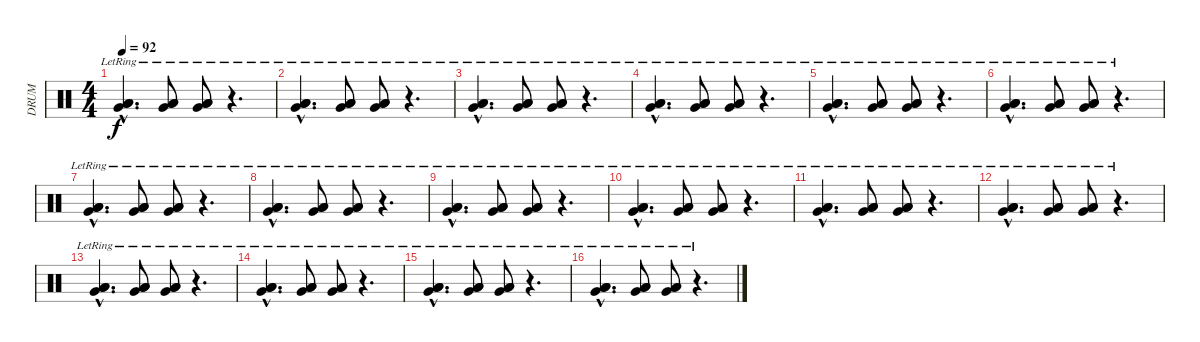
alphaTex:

\track ("DRUM" "DRUM") {instrument percussion}
\staff {score}
\articulation defaults
\ts (4 4)
\tempo 92
\clef neutral
\ks c
("Low Floor Tom (hit)"{hac lr} "Very Low Tom (hit)"{hac} "Low Tom (hit)"{hac}).4{d dy f} ("Low Floor Tom (hit)"{lr} "Very Low Tom (hit)" "Low Tom (hit)").8 ("Low Floor Tom (hit)"{lr} "Very Low Tom (hit)"{lr} "Low Tom (hit)").8 r.4{d} |
("Low Floor Tom (hit)"{hac lr} "Very Low Tom (hit)"{hac} "Low Tom (hit)"{hac}).4{d} ("Low Floor Tom (hit)"{lr} "Very Low Tom (hit)" "Low Tom (hit)").8 ("Low Floor Tom (hit)"{lr} "Very Low Tom (hit)"{lr} "Low Tom (hit)").8 r.4{d} |
("Low Floor Tom (hit)"{hac lr} "Very Low Tom (hit)"{hac} "Low Tom (hit)"{hac}).4{d} ("Low Floor Tom (hit)"{lr} "Very Low Tom (hit)" "Low Tom (hit)").8 ("Low Floor Tom (hit)"{lr} "Very Low Tom (hit)"{lr} "Low Tom (hit)").8 r.4{d} |
("Low Floor Tom (hit)"{hac lr} "Very Low Tom (hit)"{hac} "Low Tom (hit)"{hac}).4{d} ("Low Floor Tom (hit)"{lr} "Very Low Tom (hit)" "Low Tom (hit)").8 ("Low Floor Tom (hit)"{lr} "Very Low Tom (hit)"{lr} "Low Tom (hit)").8 r.4{d} |
("Low Floor Tom (hit)"{hac lr} "Very Low Tom (hit)"{hac} "Low Tom (hit)"{hac}).4{d} ("Low Floor Tom (hit)"{lr} "Very Low Tom (hit)" "Low Tom (hit)").8 ("Low Floor Tom (hit)"{lr} "Very Low Tom (hit)"{lr} "Low Tom (hit)").8 r.4{d} |
("Low Floor Tom (hit)"{hac lr} "Very Low Tom (hit)"{hac} "Low Tom (hit)"{hac}).4{d} ("Low Floor Tom (hit)"{lr} "Very Low Tom (hit)" "Low Tom (hit)").8 ("Low Floor Tom (hit)"{lr} "Very Low Tom (hit)"{lr} "Low Tom (hit)").8 r.4{d} |
("Low Floor Tom (hit)"{hac lr} "Very Low Tom (hit)"{hac} "Low Tom (hit)"{hac}).4{d} ("Low Floor Tom (hit)"{lr} "Very Low Tom (hit)" "Low Tom (hit)").8 ("Low Floor Tom (hit)"{lr} "Very Low Tom (hit)"{lr} "Low Tom (hit)").8 r.4{d} |
("Low Floor Tom (hit)"{hac lr} "Very Low Tom (hit)"{hac} "Low Tom (hit)"{hac}).4{d} ("Low Floor Tom (hit)"{lr} "Very Low Tom (hit)" "Low Tom (hit)").8 ("Low Floor Tom (hit)"{lr} "Very Low Tom (hit)"{lr} "Low Tom (hit)").8 r.4{d} |
("Low Floor Tom (hit)"{hac lr} "Very Low Tom (hit)"{hac} "Low Tom (hit)"{hac}).4{d} ("Low Floor Tom (hit)"{lr} "Very Low Tom (hit)" "Low Tom (hit)").8 ("Low Floor Tom (hit)"{lr} "Very Low Tom (hit)"{lr} "Low Tom (hit)").8 r.4{d} |
("Low Floor Tom (hit)"{hac lr} "Very Low Tom (hit)"{hac} "Low Tom (hit)"{hac}).4{d} ("Low Floor Tom (hit)"{lr} "Very Low Tom (hit)" "Low Tom (hit)").8 ("Low Floor Tom (hit)"{lr} "Very Low Tom (hit)"{lr} "Low Tom (hit)").8 r.4{d} |
("Low Floor Tom (hit)"{hac lr} "Very Low Tom (hit)"{hac} "Low Tom (hit)"{hac}).4{d} ("Low Floor Tom (hit)"{lr} "Very Low Tom (hit)" "Low Tom (hit)").8 ("Low Floor Tom (hit)"{lr} "Very Low Tom (hit)"{lr} "Low Tom (hit)").8 r.4{d} |
("Low Floor Tom (hit)"{hac lr} "Very Low Tom (hit)"{hac} "Low Tom (hit)"{hac}).4{d} ("Low Floor Tom (hit)"{lr} "Very Low Tom (hit)" "Low Tom (hit)").8 ("Low Floor Tom (hit)"{lr} "Very Low Tom (hit)"{lr} "Low Tom (hit)").8 r.4{d} |
("Low Floor Tom (hit)"{hac lr} "Very Low Tom (hit)"{hac} "Low Tom (hit)"{hac}).4{d} ("Low Floor Tom (hit)"{lr} "Very Low Tom (hit)" "Low Tom (hit)").8 ("Low Floor Tom (hit)"{lr} "Very Low Tom (hit)"{lr} "Low Tom (hit)").8 r.4{d} |
("Low Floor Tom (hit)"{hac lr} "Very Low Tom (hit)"{hac} "Low Tom (hit)"{hac}).4{d} ("Low Floor Tom (hit)"{lr} "Very Low Tom (hit)" "Low Tom (hit)").8 ("Low Floor Tom (hit)"{lr} "Very Low Tom (hit)"{lr} "Low Tom (hit)").8 r.4{d} |
("Low Floor Tom (hit)"{hac lr} "Very Low Tom (hit)"{hac} "Low Tom (hit)"{hac}).4{d} ("Low Floor Tom (hit)"{lr} "Very Low Tom (hit)" "Low Tom (hit)").8 ("Low Floor Tom (hit)"{lr} "Very Low Tom (hit)"{lr} "Low Tom (hit)").8 r.4{d} |
("Low Floor Tom (hit)"{hac lr} "Very Low Tom (hit)"{hac} "Low Tom (hit)"{hac}).4{d} ("Low Floor Tom (hit)"{lr} "Very Low Tom (hit)" "Low Tom (hit)").8 ("Low Floor Tom (hit)"{lr} "Very Low Tom (hit)"{lr} "Low Tom (hit)").8 r.4{d}
